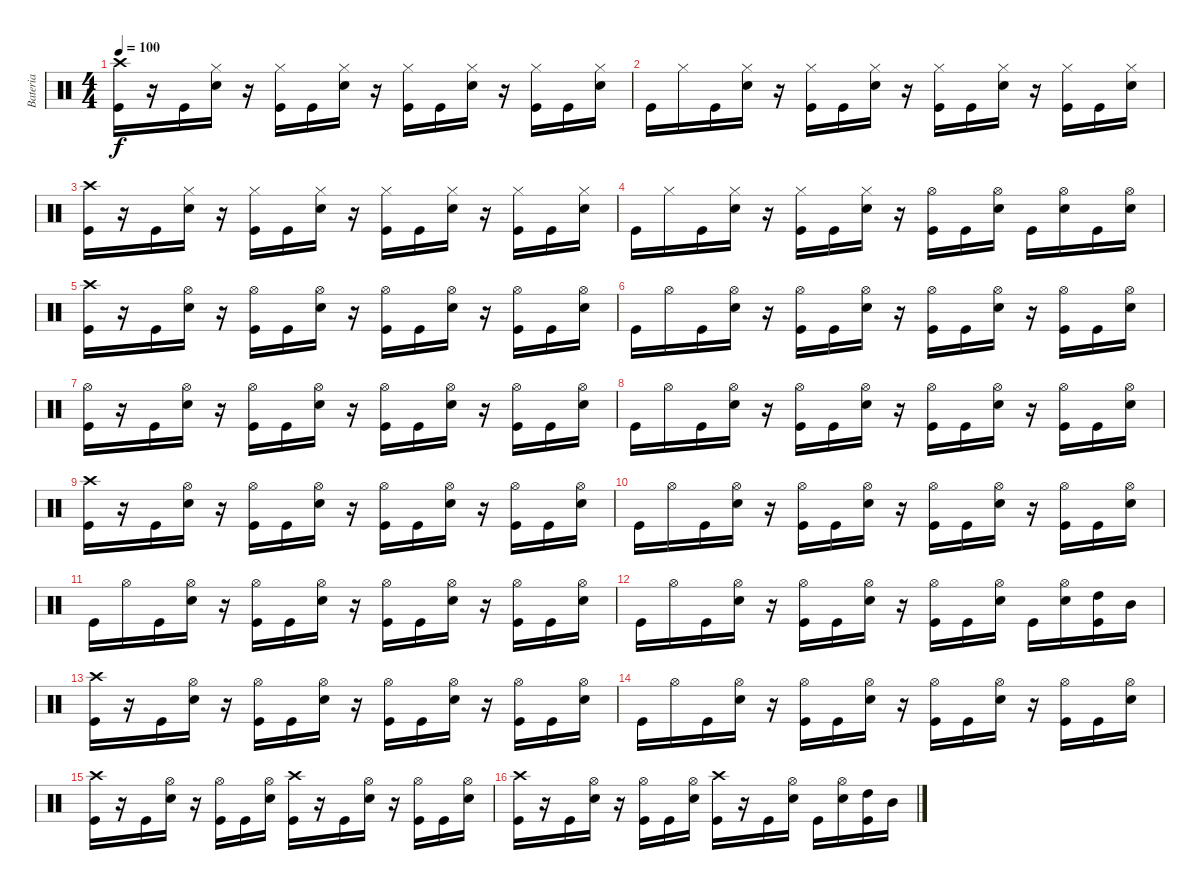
\track ("Bateria" "Bateria") {instrument percussion}
\staff {score}
\articulation defaults
\ts (4 4)
\tempo 100
\clef neutral
\ks c
("Crash high (hit)" "Kick (hit)").16{dy f} r.16 "Kick (hit)".16 ("Snare (hit) 2" "Hi-Hat (closed)").16 r.16 ("Hi-Hat (closed)" "Kick (hit)").16 "Kick (hit)".16 ("Snare (hit) 2" "Hi-Hat (closed)").16 r.16 ("Hi-Hat (closed)" "Kick (hit)").16 "Kick (hit)".16 ("Snare (hit) 2" "Hi-Hat (closed)").16 r.16 ("Hi-Hat (closed)" "Kick (hit)").16 "Kick (hit)".16 ("Snare (hit) 2" "Hi-Hat (closed)").16 |
"Kick (hit)".16 "Hi-Hat (closed)".16 "Kick (hit)".16 ("Snare (hit) 2" "Hi-Hat (closed)").16 r.16 ("Hi-Hat (closed)" "Kick (hit)").16 "Kick (hit)".16 ("Snare (hit) 2" "Hi-Hat (closed)").16 r.16 ("Hi-Hat (closed)" "Kick (hit)").16 "Kick (hit)".16 ("Snare (hit) 2" "Hi-Hat (closed)").16 r.16 ("Hi-Hat (closed)" "Kick (hit)").16 "Kick (hit)".16 ("Snare (hit) 2" "Hi-Hat (closed)").16 |
("Crash high (hit)" "Kick (hit)").16 r.16 "Kick (hit)".16 ("Snare (hit) 2" "Hi-Hat (closed)").16 r.16 ("Hi-Hat (closed)" "Kick (hit)").16 "Kick (hit)".16 ("Snare (hit) 2" "Hi-Hat (closed)").16 r.16 ("Hi-Hat (closed)" "Kick (hit)").16 "Kick (hit)".16 ("Snare (hit) 2" "Hi-Hat (closed)").16 r.16 ("Hi-Hat (closed)" "Kick (hit)").16 "Kick (hit)".16 ("Snare (hit) 2" "Hi-Hat (closed)").16 |
"Kick (hit)".16 "Hi-Hat (closed)".16 "Kick (hit)".16 ("Snare (hit) 2" "Hi-Hat (closed)").16 r.16 ("Hi-Hat (closed)" "Kick (hit)").16 "Kick (hit)".16 ("Snare (hit) 2" "Hi-Hat (closed)").16 r.16 ("Hi-Hat (open)" "Kick (hit)").16 "Kick (hit)".16 ("Snare (hit) 2" "Hi-Hat (open)").16 "Kick (hit)".16 ("Snare (hit) 2" "Hi-Hat (open)").16 "Kick (hit)".16 ("Snare (hit) 2" "Hi-Hat (open)").16 |
("Crash high (hit)" "Kick (hit)").16 r.16 "Kick (hit)".16 ("Snare (hit) 2" "Hi-Hat (open)").16 r.16 ("Hi-Hat (open)" "Kick (hit)").16 "Kick (hit)".16 ("Snare (hit) 2" "Hi-Hat (open)").16 r.16 ("Hi-Hat (open)" "Kick (hit)").16 "Kick (hit)".16 ("Snare (hit) 2" "Hi-Hat (open)").16 r.16 ("Hi-Hat (open)" "Kick (hit)").16 "Kick (hit)".16 ("Snare (hit) 2" "Hi-Hat (open)").16 |
"Kick (hit)".16 "Hi-Hat (open)".16 "Kick (hit)".16 ("Snare (hit) 2" "Hi-Hat (open)").16 r.16 ("Hi-Hat (open)" "Kick (hit)").16 "Kick (hit)".16 ("Snare (hit) 2" "Hi-Hat (open)").16 r.16 ("Hi-Hat (open)" "Kick (hit)").16 "Kick (hit)".16 ("Snare (hit) 2" "Hi-Hat (open)").16 r.16 ("Hi-Hat (open)" "Kick (hit)").16 "Kick (hit)".16 ("Snare (hit) 2" "Hi-Hat (open)").16 |
("Hi-Hat (open)" "Kick (hit)").16 r.16 "Kick (hit)".16 ("Snare (hit) 2" "Hi-Hat (open)").16 r.16 ("Hi-Hat (open)" "Kick (hit)").16 "Kick (hit)".16 ("Snare (hit) 2" "Hi-Hat (open)").16 r.16 ("Hi-Hat (open)" "Kick (hit)").16 "Kick (hit)".16 ("Snare (hit) 2" "Hi-Hat (open)").16 r.16 ("Hi-Hat (open)" "Kick (hit)").16 "Kick (hit)".16 ("Snare (hit) 2" "Hi-Hat (open)").16 |
"Kick (hit)".16 "Hi-Hat (open)".16 "Kick (hit)".16 ("Snare (hit) 2" "Hi-Hat (open)").16 r.16 ("Hi-Hat (open)" "Kick (hit)").16 "Kick (hit)".16 ("Snare (hit) 2" "Hi-Hat (open)").16 r.16 ("Hi-Hat (open)" "Kick (hit)").16 "Kick (hit)".16 ("Snare (hit) 2" "Hi-Hat (open)").16 r.16 ("Hi-Hat (open)" "Kick (hit)").16 "Kick (hit)".16 ("Snare (hit) 2" "Hi-Hat (open)").16 |
("Crash high (hit)" "Kick (hit)").16 r.16 "Kick (hit)".16 ("Snare (hit) 2" "Hi-Hat (open)").16 r.16 ("Hi-Hat (open)" "Kick (hit)").16 "Kick (hit)".16 ("Snare (hit) 2" "Hi-Hat (open)").16 r.16 ("Hi-Hat (open)" "Kick (hit)").16 "Kick (hit)".16 ("Snare (hit) 2" "Hi-Hat (open)").16 r.16 ("Hi-Hat (open)" "Kick (hit)").16 "Kick (hit)".16 ("Snare (hit) 2" "Hi-Hat (open)").16 |
"Kick (hit)".16 "Hi-Hat (open)".16 "Kick (hit)".16 ("Snare (hit) 2" "Hi-Hat (open)").16 r.16 ("Hi-Hat (open)" "Kick (hit)").16 "Kick (hit)".16 ("Snare (hit) 2" "Hi-Hat (open)").16 r.16 ("Hi-Hat (open)" "Kick (hit)").16 "Kick (hit)".16 ("Snare (hit) 2" "Hi-Hat (open)").16 r.16 ("Hi-Hat (open)" "Kick (hit)").16 "Kick (hit)".16 ("Snare (hit) 2" "Hi-Hat (open)").16 |
"Kick (hit)".16 "Hi-Hat (open)".16 "Kick (hit)".16 ("Snare (hit) 2" "Hi-Hat (open)").16 r.16 ("Hi-Hat (open)" "Kick (hit)").16 "Kick (hit)".16 ("Snare (hit) 2" "Hi-Hat (open)").16 r.16 ("Hi-Hat (open)" "Kick (hit)").16 "Kick (hit)".16 ("Snare (hit) 2" "Hi-Hat (open)").16 r.16 ("Hi-Hat (open)" "Kick (hit)").16 "Kick (hit)".16 ("Snare (hit) 2" "Hi-Hat (open)").16 |
"Kick (hit)".16 "Hi-Hat (open)".16 "Kick (hit)".16 ("Snare (hit) 2" "Hi-Hat (open)").16 r.16 ("Hi-Hat (open)" "Kick (hit)").16 "Kick (hit)".16 ("Snare (hit) 2" "Hi-Hat (open)").16 r.16 ("Hi-Hat (open)" "Kick (hit)").16 "Kick (hit)".16 ("Snare (hit) 2" "Hi-Hat (open)").16 "Kick (hit)".16 ("Snare (hit) 2" "Hi-Hat (open)").16 ("Kick (hit)" "High Tom (hit)").16 "Mid Tom (hit)".16 |
("Crash high (hit)" "Kick (hit)").16 r.16 "Kick (hit)".16 ("Snare (hit) 2" "Hi-Hat (open)").16 r.16 ("Hi-Hat (open)" "Kick (hit)").16 "Kick (hit)".16 ("Snare (hit) 2" "Hi-Hat (open)").16 r.16 ("Hi-Hat (open)" "Kick (hit)").16 "Kick (hit)".16 ("Snare (hit) 2" "Hi-Hat (open)").16 r.16 ("Hi-Hat (open)" "Kick (hit)").16 "Kick (hit)".16 ("Snare (hit) 2" "Hi-Hat (open)").16 |
"Kick (hit)".16 "Hi-Hat (open)".16 "Kick (hit)".16 ("Snare (hit) 2" "Hi-Hat (open)").16 r.16 ("Hi-Hat (open)" "Kick (hit)").16 "Kick (hit)".16 ("Snare (hit) 2" "Hi-Hat (open)").16 r.16 ("Hi-Hat (open)" "Kick (hit)").16 "Kick (hit)".16 ("Snare (hit) 2" "Hi-Hat (open)").16 r.16 ("Hi-Hat (open)" "Kick (hit)").16 "Kick (hit)".16 ("Snare (hit) 2" "Hi-Hat (open)").16 |
("Crash high (hit)" "Kick (hit)").16 r.16 "Kick (hit)".16 ("Snare (hit) 2" "Hi-Hat (open)").16 r.16 ("Hi-Hat (open)" "Kick (hit)").16 "Kick (hit)".16 ("Snare (hit) 2" "Hi-Hat (open)").16 ("Crash high (hit)" "Kick (hit)").16 r.16 "Kick (hit)".16 ("Snare (hit) 2" "Hi-Hat (open)").16 r.16 ("Hi-Hat (open)" "Kick (hit)").16 "Kick (hit)".16 ("Snare (hit) 2" "Hi-Hat (open)").16 |
("Crash high (hit)" "Kick (hit)").16 r.16 "Kick (hit)".16 ("Snare (hit) 2" "Hi-Hat (open)").16 r.16 ("Hi-Hat (open)" "Kick (hit)").16 "Kick (hit)".16 ("Snare (hit) 2" "Hi-Hat (open)").16 ("Crash high (hit)" "Kick (hit)").16 r.16 "Kick (hit)".16 ("Snare (hit) 2" "Hi-Hat (open)").16 "Kick (hit)".16 ("Snare (hit) 2" "Hi-Hat (open)").16 ("Kick (hit)" "High Tom (hit)").16 "Mid Tom (hit)".16
